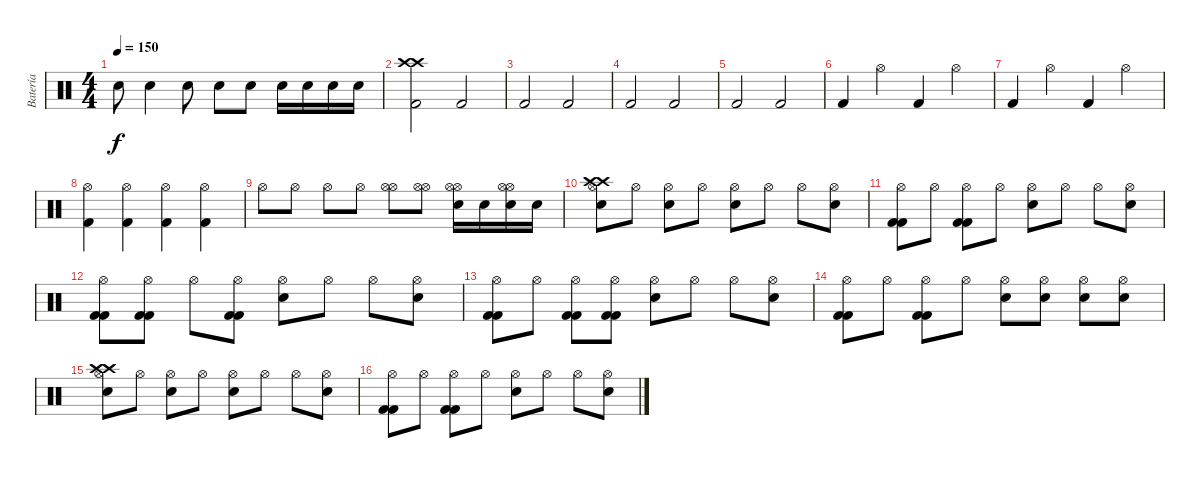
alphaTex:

\track ("Batería" "Batería") {instrument percussion}
\staff {score}
\articulation defaults
\ts (4 4)
\tempo 150
\clef neutral
\ks c "Snare (hit) 2".8{dy f} "Snare (hit) 2".4 "Snare (hit) 2".8 "Snare (hit) 2".8 "Snare (hit) 2".8 "Snare (hit) 2".16 "Snare (hit) 2".16 "Snare (hit) 2".16 "Snare (hit) 2".16
|
("Crash high (hit)" "Crash high (hit)" "Kick (hit) 2").2 "Kick (hit) 2".2 |
"Kick (hit) 2".2 "Kick (hit) 2".2 |
"Kick (hit) 2".2 "Kick (hit) 2".2 |
"Kick (hit) 2".2 "Kick (hit) 2".2 |
"Kick (hit) 2".4 "Hi-Hat (open)".4 "Kick (hit) 2".4 "Hi-Hat (open)".4 |
"Kick (hit) 2".4 "Hi-Hat (open)".4 "Kick (hit) 2".4 "Hi-Hat (open)".4 |
("Hi-Hat (open)" "Kick (hit) 2").4 ("Hi-Hat (open)" "Kick (hit) 2").4 ("Hi-Hat (open)" "Kick (hit) 2").4 ("Hi-Hat (open)" "Kick (hit) 2").4 |
"Hi-Hat (open)".8 "Hi-Hat (open)".8 "Hi-Hat (open)".8 "Hi-Hat (open)".8 ("Hi-Hat (open)" "Hi-Hat (open)").8 ("Hi-Hat (open)" "Hi-Hat (open)").8 ("Snare (hit) 2" "Hi-Hat (open)" "Hi-Hat (open)").16 "Snare (hit) 2".16 ("Snare (hit) 2" "Hi-Hat (open)" "Hi-Hat (open)").16 "Snare (hit) 2".16 |
("Crash high (hit)" "Crash high (hit)" "Snare (hit) 2" "Hi-Hat (open)").8 "Hi-Hat (open)".8 ("Snare (hit) 2" "Hi-Hat (open)").8 "Hi-Hat (open)".8 ("Snare (hit) 2" "Hi-Hat (open)").8 "Hi-Hat (open)".8 "Hi-Hat (open)".8 ("Snare (hit) 2" "Hi-Hat (open)").8 |
("Kick (hit) 2" "Kick (hit) 2" "Hi-Hat (open)").8 "Hi-Hat (open)".8 ("Kick (hit) 2" "Kick (hit) 2" "Hi-Hat (open)").8 "Hi-Hat (open)".8 ("Snare (hit) 2" "Hi-Hat (open)").8 "Hi-Hat (open)".8 "Hi-Hat (open)".8 ("Snare (hit) 2" "Hi-Hat (open)").8 |
("Kick (hit) 2" "Kick (hit) 2" "Hi-Hat (open)").8 ("Kick (hit) 2" "Kick (hit) 2" "Hi-Hat (open)").8 "Hi-Hat (open)".8 ("Kick (hit) 2" "Kick (hit) 2" "Hi-Hat (open)").8 ("Snare (hit) 2" "Hi-Hat (open)").8 "Hi-Hat (open)".8 "Hi-Hat (open)".8 ("Snare (hit) 2" "Hi-Hat (open)").8 |
("Kick (hit) 2" "Kick (hit) 2" "Hi-Hat (open)").8 "Hi-Hat (open)".8 ("Kick (hit) 2" "Kick (hit) 2" "Hi-Hat (open)").8 ("Kick (hit) 2" "Kick (hit) 2" "Hi-Hat (open)").8 ("Snare (hit) 2" "Hi-Hat (open)").8 "Hi-Hat (open)".8 "Hi-Hat (open)".8 ("Snare (hit) 2" "Hi-Hat (open)").8 |
("Kick (hit) 2" "Kick (hit) 2" "Hi-Hat (open)").8 "Hi-Hat (open)".8 ("Kick (hit) 2" "Kick (hit) 2" "Hi-Hat (open)").8 "Hi-Hat (open)".8 ("Snare (hit) 2" "Hi-Hat (open)").8 ("Snare (hit) 2" "Hi-Hat (open)").8 ("Snare (hit) 2" "Hi-Hat (open)").8 ("Snare (hit) 2" "Hi-Hat (open)").8 |
("Crash high (hit)" "Crash high (hit)" "Snare (hit) 2" "Hi-Hat (open)").8 "Hi-Hat (open)".8 ("Snare (hit) 2" "Hi-Hat (open)").8 "Hi-Hat (open)".8 ("Snare (hit) 2" "Hi-Hat (open)").8 "Hi-Hat (open)".8 "Hi-Hat (open)".8 ("Snare (hit) 2" "Hi-Hat (open)").8 |
("Kick (hit) 2" "Kick (hit) 2" "Hi-Hat (open)").8 "Hi-Hat (open)".8 ("Kick (hit) 2" "Kick (hit) 2" "Hi-Hat (open)").8 "Hi-Hat (open)".8 ("Snare (hit) 2" "Hi-Hat (open)").8 "Hi-Hat (open)".8 "Hi-Hat (open)".8 ("Snare (hit) 2" "Hi-Hat (open)").8
